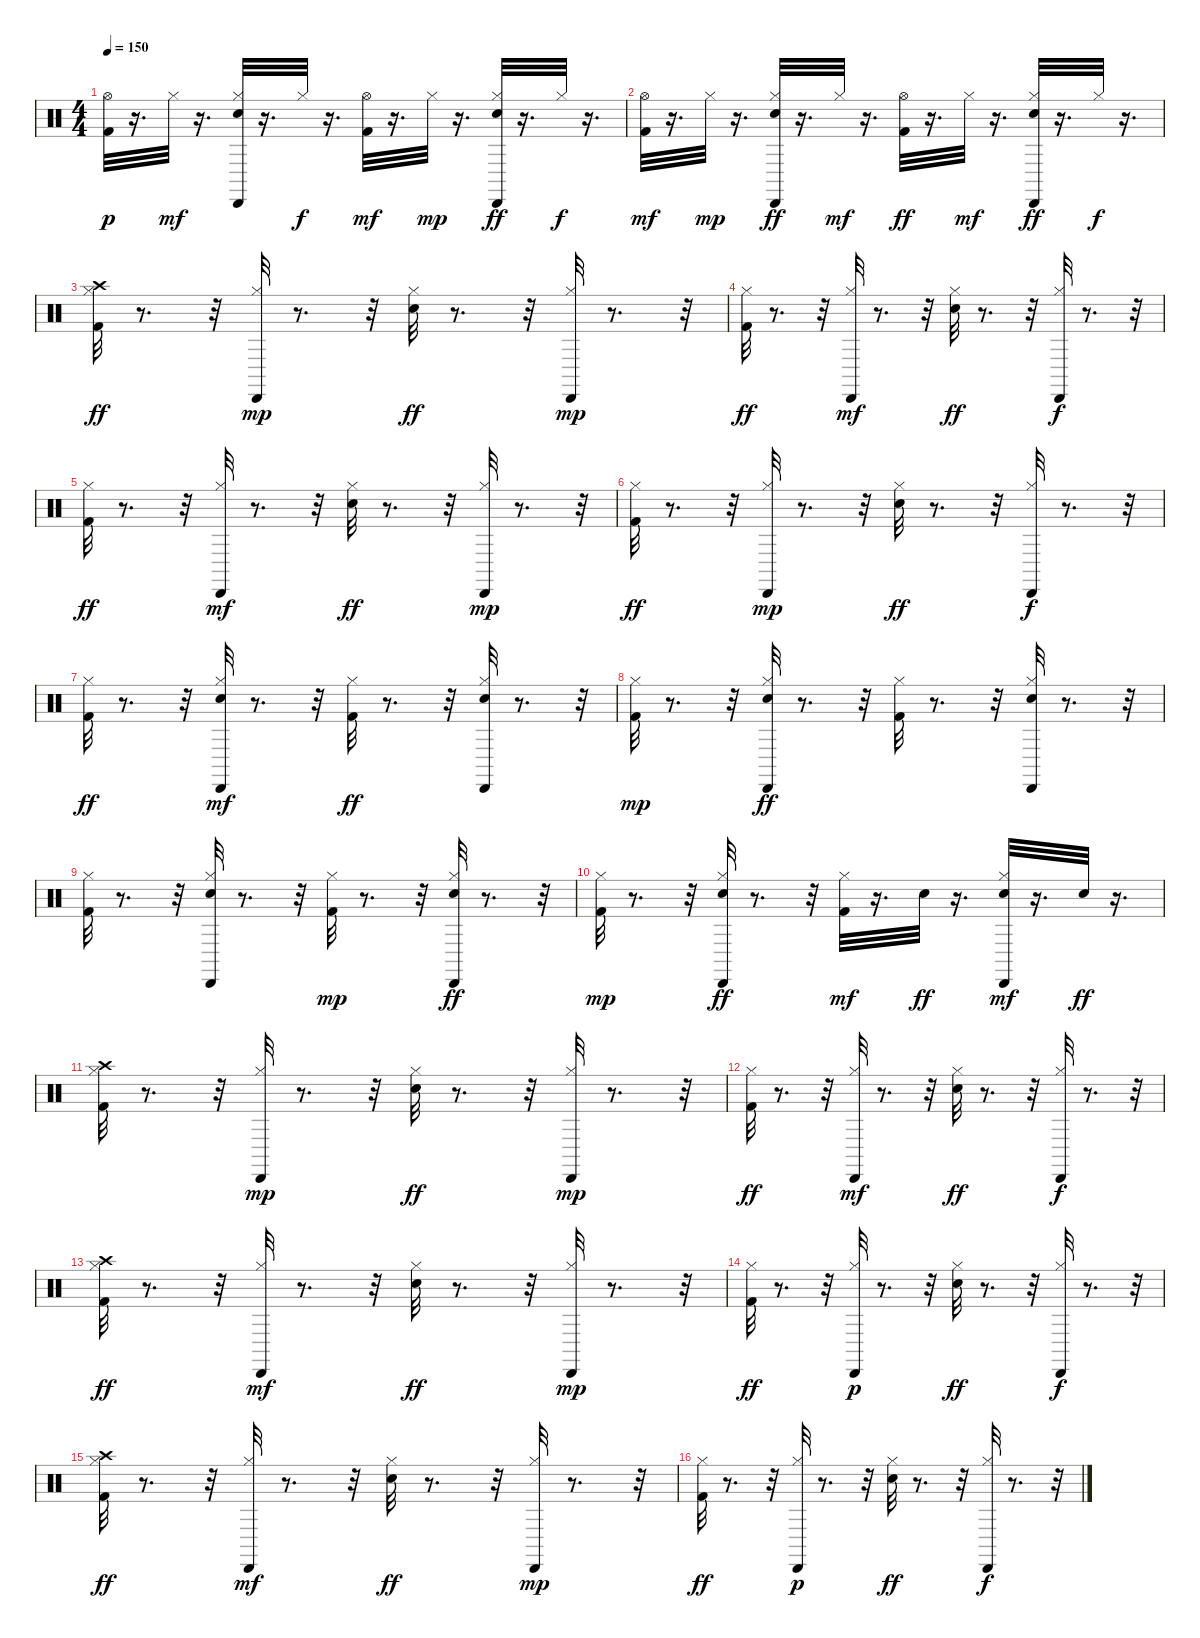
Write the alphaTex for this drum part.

\track "" {instrument percussion}
\staff {score}
\articulation defaults
\ts (4 4)
\tempo 150
\clef neutral
\ks c
("Kick (hit) 2" "Hi-Hat (open)").32{dy p} r.16{d} "Hi-Hat (closed)".32{dy mf} r.16{d} ("Hi-Hat (closed)" "Snare (hit) 2" "Cabasa (hit)").32 r.16{d} "Hi-Hat (closed)".32{dy f} r.16{d} ("Kick (hit) 2" "Hi-Hat (open)").32{dy mf} r.16{d} "Hi-Hat (closed)".32{dy mp} r.16{d} ("Hi-Hat (closed)" "Snare (hit) 2" "Cabasa (hit)").32{dy ff} r.16{d} "Hi-Hat (closed)".32{dy f} r.16{d} |
("Kick (hit) 2" "Hi-Hat (open)").32{dy mf} r.16{d} "Hi-Hat (closed)".32{dy mp} r.16{d} ("Hi-Hat (closed)" "Snare (hit) 2" "Cabasa (hit)").32{dy ff} r.16{d} "Hi-Hat (closed)".32{dy mf} r.16{d} ("Kick (hit) 2" "Hi-Hat (open)").32{dy ff} r.16{d} "Hi-Hat (closed)".32{dy mf} r.16{d} ("Hi-Hat (closed)" "Snare (hit) 2" "Cabasa (hit)").32{dy ff} r.16{d} "Hi-Hat (closed)".32{dy f} r.16{d} |
("Kick (hit) 2" "Hi-Hat (closed)" "Crash high (hit)").32{dy ff} r.8{d} r.32 ("Hi-Hat (closed)" "Cabasa (hit)").32{dy mp} r.8{d} r.32 ("Hi-Hat (closed)" "Snare (hit) 2").32{dy ff} r.8{d} r.32 ("Hi-Hat (closed)" "Cabasa (hit)").32{dy mp} r.8{d} r.32 |
("Kick (hit) 2" "Hi-Hat (closed)").32{dy ff} r.8{d} r.32 ("Hi-Hat (closed)" "Cabasa (hit)").32{dy mf} r.8{d} r.32 ("Hi-Hat (closed)" "Snare (hit) 2").32{dy ff} r.8{d} r.32 ("Hi-Hat (closed)" "Cabasa (hit)").32{dy f} r.8{d} r.32 |
("Kick (hit) 2" "Hi-Hat (closed)").32{dy ff} r.8{d} r.32 ("Hi-Hat (closed)" "Cabasa (hit)").32{dy mf} r.8{d} r.32 ("Hi-Hat (closed)" "Snare (hit) 2").32{dy ff} r.8{d} r.32 ("Hi-Hat (closed)" "Cabasa (hit)").32{dy mp} r.8{d} r.32 |
("Kick (hit) 2" "Hi-Hat (closed)").32{dy ff} r.8{d} r.32 ("Hi-Hat (closed)" "Cabasa (hit)").32{dy mp} r.8{d} r.32 ("Hi-Hat (closed)" "Snare (hit) 2").32{dy ff} r.8{d} r.32 ("Hi-Hat (closed)" "Cabasa (hit)").32{dy f} r.8{d} r.32 |
("Kick (hit) 2" "Hi-Hat (closed)").32{dy ff} r.8{d} r.32 ("Hi-Hat (closed)" "Snare (hit) 2" "Cabasa (hit)").32{dy mf} r.8{d} r.32 ("Kick (hit) 2" "Hi-Hat (closed)").32{dy ff} r.8{d} r.32 ("Hi-Hat (closed)" "Snare (hit) 2" "Cabasa (hit)").32 r.8{d} r.32 |
("Kick (hit) 2" "Hi-Hat (closed)").32{dy mp} r.8{d} r.32 ("Hi-Hat (closed)" "Snare (hit) 2" "Cabasa (hit)").32{dy ff} r.8{d} r.32 ("Kick (hit) 2" "Hi-Hat (closed)").32 r.8{d} r.32 ("Hi-Hat (closed)" "Snare (hit) 2" "Cabasa (hit)").32 r.8{d} r.32 |
("Kick (hit) 2" "Hi-Hat (closed)").32 r.8{d} r.32 ("Hi-Hat (closed)" "Snare (hit) 2" "Cabasa (hit)").32 r.8{d} r.32 ("Kick (hit) 2" "Hi-Hat (closed)").32{dy mp} r.8{d} r.32 ("Hi-Hat (closed)" "Snare (hit) 2" "Cabasa (hit)").32{dy ff} r.8{d} r.32 |
("Kick (hit) 2" "Hi-Hat (closed)").32{dy mp} r.8{d} r.32 ("Hi-Hat (closed)" "Snare (hit) 2" "Cabasa (hit)").32{dy ff} r.8{d} r.32 ("Kick (hit) 2" "Hi-Hat (closed)").32{dy mf} r.16{d} "Snare (hit) 2".32{dy ff} r.16{d} ("Hi-Hat (closed)" "Snare (hit) 2" "Cabasa (hit)").32{dy mf} r.16{d} "Snare (hit) 2".32{dy ff} r.16{d} |
("Kick (hit) 2" "Hi-Hat (closed)" "Crash high (hit)").32 r.8{d} r.32 ("Hi-Hat (closed)" "Cabasa (hit)").32{dy mp} r.8{d} r.32 ("Hi-Hat (closed)" "Snare (hit) 2").32{dy ff} r.8{d} r.32 ("Hi-Hat (closed)" "Cabasa (hit)").32{dy mp} r.8{d} r.32 |
("Kick (hit) 2" "Hi-Hat (closed)").32{dy ff} r.8{d} r.32 ("Hi-Hat (closed)" "Cabasa (hit)").32{dy mf} r.8{d} r.32 ("Hi-Hat (closed)" "Snare (hit) 2").32{dy ff} r.8{d} r.32 ("Hi-Hat (closed)" "Cabasa (hit)").32{dy f} r.8{d} r.32 |
("Kick (hit) 2" "Hi-Hat (closed)" "Crash high (hit)").32{dy ff} r.8{d} r.32 ("Hi-Hat (closed)" "Cabasa (hit)").32{dy mf} r.8{d} r.32 ("Hi-Hat (closed)" "Snare (hit) 2").32{dy ff} r.8{d} r.32 ("Hi-Hat (closed)" "Cabasa (hit)").32{dy mp} r.8{d} r.32 |
("Kick (hit) 2" "Hi-Hat (closed)").32{dy ff} r.8{d} r.32 ("Hi-Hat (closed)" "Cabasa (hit)").32{dy p} r.8{d} r.32 ("Hi-Hat (closed)" "Snare (hit) 2").32{dy ff} r.8{d} r.32 ("Hi-Hat (closed)" "Cabasa (hit)").32{dy f} r.8{d} r.32 |
("Kick (hit) 2" "Hi-Hat (closed)" "Crash high (hit)").32{dy ff} r.8{d} r.32 ("Hi-Hat (closed)" "Cabasa (hit)").32{dy mf} r.8{d} r.32 ("Hi-Hat (closed)" "Snare (hit) 2").32{dy ff} r.8{d} r.32 ("Hi-Hat (closed)" "Cabasa (hit)").32{dy mp} r.8{d} r.32 |
("Kick (hit) 2" "Hi-Hat (closed)").32{dy ff} r.8{d} r.32 ("Hi-Hat (closed)" "Cabasa (hit)").32{dy p} r.8{d} r.32 ("Hi-Hat (closed)" "Snare (hit) 2").32{dy ff} r.8{d} r.32 ("Hi-Hat (closed)" "Cabasa (hit)").32{dy f} r.8{d} r.32
